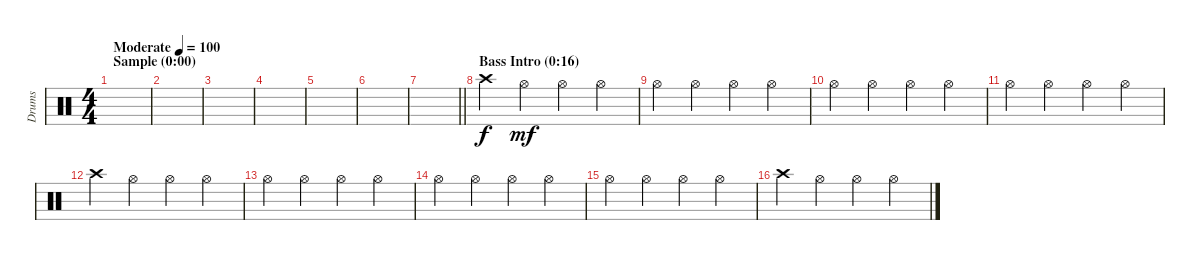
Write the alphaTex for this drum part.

\track ("Drums" "Drums") {instrument percussion}
\staff {score}
\articulation defaults
\ts (4 4)
\section ("" "Sample (0:00)")
\tempo (100 "Moderate")
\clef neutral
\ks c
|
|
|
|
|
|
\barLineRight lightlight
|
\section ("" "Bass Intro (0:16)")
"Crash high (hit)".4 "Hi-Hat (open)".4{dy mf} "Hi-Hat (open)".4 "Hi-Hat (open)".4 |
"Hi-Hat (open)".4 "Hi-Hat (open)".4 "Hi-Hat (open)".4 "Hi-Hat (open)".4 |
"Hi-Hat (open)".4 "Hi-Hat (open)".4 "Hi-Hat (open)".4 "Hi-Hat (open)".4 |
"Hi-Hat (open)".4 "Hi-Hat (open)".4 "Hi-Hat (open)".4 "Hi-Hat (open)".4 |
"Crash high (hit)".4 "Hi-Hat (open)".4 "Hi-Hat (open)".4 "Hi-Hat (open)".4 |
"Hi-Hat (open)".4 "Hi-Hat (open)".4 "Hi-Hat (open)".4 "Hi-Hat (open)".4 |
"Hi-Hat (open)".4 "Hi-Hat (open)".4 "Hi-Hat (open)".4 "Hi-Hat (open)".4 |
"Hi-Hat (open)".4 "Hi-Hat (open)".4 "Hi-Hat (open)".4 "Hi-Hat (open)".4 |
"Crash high (hit)".4 "Hi-Hat (open)".4 "Hi-Hat (open)".4 "Hi-Hat (open)".4
